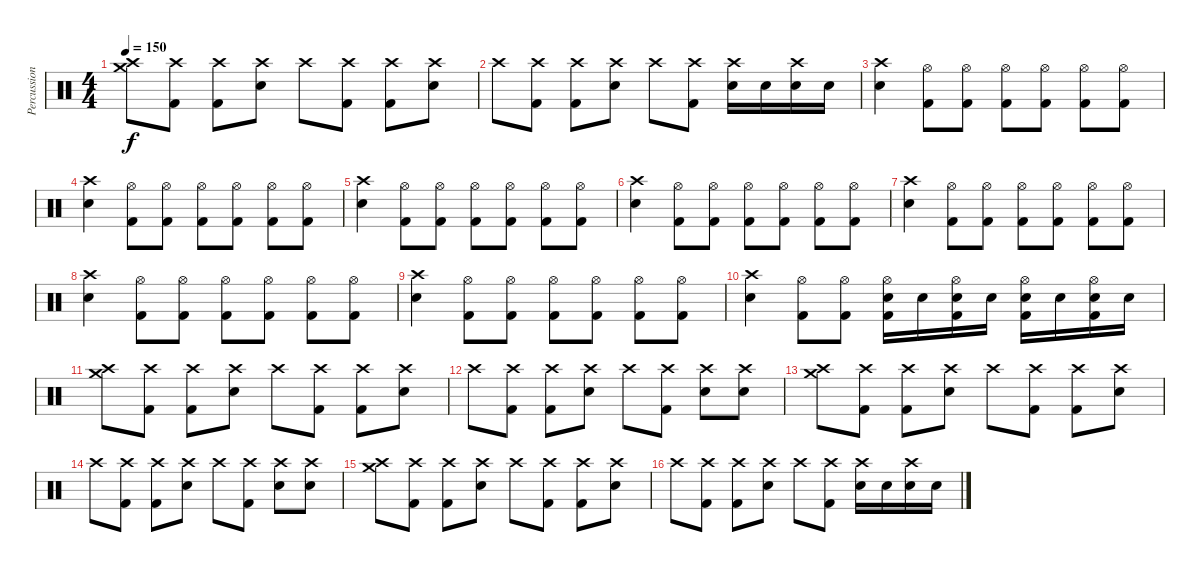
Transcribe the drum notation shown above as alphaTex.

\track ("Percussioni" "Percussion") {instrument percussion}
\staff {score}
\articulation defaults
\ts (4 4)
\tempo 150
\clef neutral
\ks c
("Crash high (hit)" "Crash medium (hit)").8{dy f} ("Crash high (hit)" "Kick (hit) 2").8 ("Crash high (hit)" "Kick (hit) 2").8 ("Crash high (hit)" "Snare (hit) 2").8 "Crash high (hit)".8 ("Crash high (hit)" "Kick (hit) 2").8 ("Crash high (hit)" "Kick (hit) 2").8 ("Crash high (hit)" "Snare (hit) 2").8 |
"Crash high (hit)".8 ("Crash high (hit)" "Kick (hit) 2").8 ("Crash high (hit)" "Kick (hit) 2").8 ("Crash high (hit)" "Snare (hit) 2").8 "Crash high (hit)".8 ("Crash high (hit)" "Kick (hit) 2").8 ("Crash high (hit)" "Snare (hit) 2").16 "Snare (hit) 2".16 ("Crash high (hit)" "Snare (hit) 2").16 "Snare (hit) 2".16 |
("Snare (hit) 2" "Crash high (hit)").4 ("Kick (hit) 2" "Hi-Hat (open)").8 ("Kick (hit) 2" "Hi-Hat (open)").8 ("Kick (hit) 2" "Hi-Hat (open)").8 ("Kick (hit) 2" "Hi-Hat (open)").8 ("Kick (hit) 2" "Hi-Hat (open)").8 ("Kick (hit) 2" "Hi-Hat (open)").8 |
("Snare (hit) 2" "Crash high (hit)").4 ("Kick (hit) 2" "Hi-Hat (open)").8 ("Kick (hit) 2" "Hi-Hat (open)").8 ("Kick (hit) 2" "Hi-Hat (open)").8 ("Kick (hit) 2" "Hi-Hat (open)").8 ("Kick (hit) 2" "Hi-Hat (open)").8 ("Kick (hit) 2" "Hi-Hat (open)").8 |
("Snare (hit) 2" "Crash high (hit)").4 ("Kick (hit) 2" "Hi-Hat (open)").8 ("Kick (hit) 2" "Hi-Hat (open)").8 ("Kick (hit) 2" "Hi-Hat (open)").8 ("Kick (hit) 2" "Hi-Hat (open)").8 ("Kick (hit) 2" "Hi-Hat (open)").8 ("Kick (hit) 2" "Hi-Hat (open)").8 |
("Snare (hit) 2" "Crash high (hit)").4 ("Kick (hit) 2" "Hi-Hat (open)").8 ("Kick (hit) 2" "Hi-Hat (open)").8 ("Kick (hit) 2" "Hi-Hat (open)").8 ("Kick (hit) 2" "Hi-Hat (open)").8 ("Kick (hit) 2" "Hi-Hat (open)").8 ("Kick (hit) 2" "Hi-Hat (open)").8 |
("Snare (hit) 2" "Crash high (hit)").4 ("Kick (hit) 2" "Hi-Hat (open)").8 ("Kick (hit) 2" "Hi-Hat (open)").8 ("Kick (hit) 2" "Hi-Hat (open)").8 ("Kick (hit) 2" "Hi-Hat (open)").8 ("Kick (hit) 2" "Hi-Hat (open)").8 ("Kick (hit) 2" "Hi-Hat (open)").8 |
("Snare (hit) 2" "Crash high (hit)").4 ("Kick (hit) 2" "Hi-Hat (open)").8 ("Kick (hit) 2" "Hi-Hat (open)").8 ("Kick (hit) 2" "Hi-Hat (open)").8 ("Kick (hit) 2" "Hi-Hat (open)").8 ("Kick (hit) 2" "Hi-Hat (open)").8 ("Kick (hit) 2" "Hi-Hat (open)").8 |
("Snare (hit) 2" "Crash high (hit)").4 ("Kick (hit) 2" "Hi-Hat (open)").8 ("Kick (hit) 2" "Hi-Hat (open)").8 ("Kick (hit) 2" "Hi-Hat (open)").8 ("Kick (hit) 2" "Hi-Hat (open)").8 ("Kick (hit) 2" "Hi-Hat (open)").8 ("Kick (hit) 2" "Hi-Hat (open)").8 |
("Snare (hit) 2" "Crash high (hit)").4 ("Kick (hit) 2" "Hi-Hat (open)").8 ("Kick (hit) 2" "Hi-Hat (open)").8 ("Kick (hit) 2" "Hi-Hat (open)" "Snare (hit) 2").16 "Snare (hit) 2".16 ("Kick (hit) 2" "Hi-Hat (open)" "Snare (hit) 2").16 "Snare (hit) 2".16 ("Kick (hit) 2" "Hi-Hat (open)" "Snare (hit) 2").16 "Snare (hit) 2".16 ("Kick (hit) 2" "Hi-Hat (open)" "Snare (hit) 2").16 "Snare (hit) 2".16 |
("Crash high (hit)" "Crash medium (hit)").8 ("Crash high (hit)" "Kick (hit) 2").8 ("Crash high (hit)" "Kick (hit) 2").8 ("Crash high (hit)" "Snare (hit) 2").8 "Crash high (hit)".8 ("Crash high (hit)" "Kick (hit) 2").8 ("Crash high (hit)" "Kick (hit) 2").8 ("Crash high (hit)" "Snare (hit) 2").8 |
"Crash high (hit)".8 ("Crash high (hit)" "Kick (hit) 2").8 ("Crash high (hit)" "Kick (hit) 2").8 ("Crash high (hit)" "Snare (hit) 2").8 "Crash high (hit)".8 ("Crash high (hit)" "Kick (hit) 2").8 ("Crash high (hit)" "Snare (hit) 2").8 ("Crash high (hit)" "Snare (hit) 2").8 |
("Crash high (hit)" "Crash medium (hit)").8 ("Crash high (hit)" "Kick (hit) 2").8 ("Crash high (hit)" "Kick (hit) 2").8 ("Crash high (hit)" "Snare (hit) 2").8 "Crash high (hit)".8 ("Crash high (hit)" "Kick (hit) 2").8 ("Crash high (hit)" "Kick (hit) 2").8 ("Crash high (hit)" "Snare (hit) 2").8 |
"Crash high (hit)".8 ("Crash high (hit)" "Kick (hit) 2").8 ("Crash high (hit)" "Kick (hit) 2").8 ("Crash high (hit)" "Snare (hit) 2").8 "Crash high (hit)".8 ("Crash high (hit)" "Kick (hit) 2").8 ("Crash high (hit)" "Snare (hit) 2").8 ("Crash high (hit)" "Snare (hit) 2").8 |
("Crash high (hit)" "Crash medium (hit)").8 ("Crash high (hit)" "Kick (hit) 2").8 ("Crash high (hit)" "Kick (hit) 2").8 ("Crash high (hit)" "Snare (hit) 2").8 "Crash high (hit)".8 ("Crash high (hit)" "Kick (hit) 2").8 ("Crash high (hit)" "Kick (hit) 2").8 ("Crash high (hit)" "Snare (hit) 2").8 |
"Crash high (hit)".8 ("Crash high (hit)" "Kick (hit) 2").8 ("Crash high (hit)" "Kick (hit) 2").8 ("Crash high (hit)" "Snare (hit) 2").8 "Crash high (hit)".8 ("Crash high (hit)" "Kick (hit) 2").8 ("Crash high (hit)" "Snare (hit) 2").16 "Snare (hit) 2".16 ("Crash high (hit)" "Snare (hit) 2").16 "Snare (hit) 2".16
